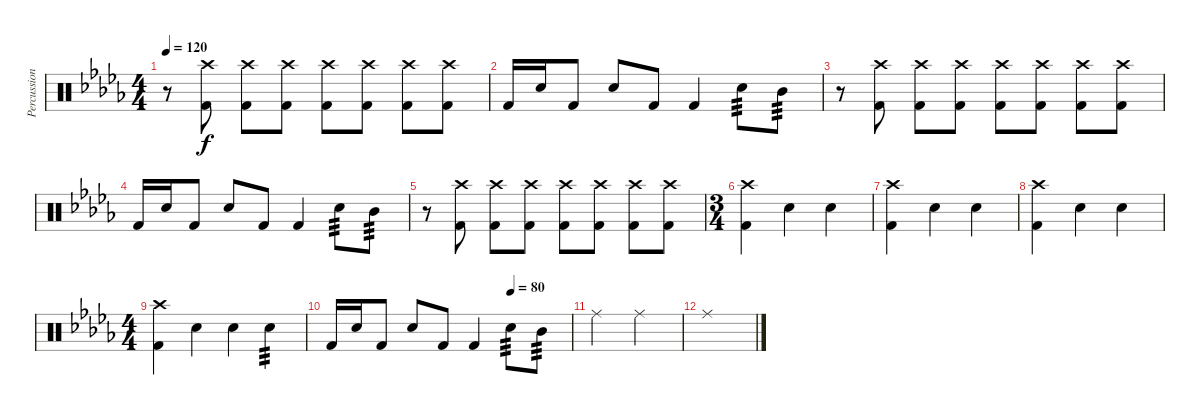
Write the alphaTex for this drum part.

\track ("Percussion" "Percussion") {instrument percussion}
\staff {score}
\articulation defaults
\ts (4 4)
\tempo 120
\clef neutral
\ks db
r.8{dy f} ("Crash high (hit)" "Kick (hit) 2").8 ("Crash high (hit)" "Kick (hit) 2").8 ("Crash high (hit)" "Kick (hit) 2").8 ("Crash high (hit)" "Kick (hit) 2").8 ("Crash high (hit)" "Kick (hit) 2").8 ("Crash high (hit)" "Kick (hit) 2").8 ("Crash high (hit)" "Kick (hit) 2").8 |
"Kick (hit) 2".16 "Electric Snare (hit)".16 "Kick (hit) 2".8 "Electric Snare (hit)".8 "Kick (hit) 2".8 "Kick (hit) 2".4 "Electric Snare (hit)".8{tp 3} "Mid Tom (hit)".8{tp 3} |
r.8 ("Crash high (hit)" "Kick (hit) 2").8 ("Crash high (hit)" "Kick (hit) 2").8 ("Crash high (hit)" "Kick (hit) 2").8 ("Crash high (hit)" "Kick (hit) 2").8 ("Crash high (hit)" "Kick (hit) 2").8 ("Crash high (hit)" "Kick (hit) 2").8 ("Crash high (hit)" "Kick (hit) 2").8 |
"Kick (hit) 2".16 "Electric Snare (hit)".16 "Kick (hit) 2".8 "Electric Snare (hit)".8 "Kick (hit) 2".8 "Kick (hit) 2".4 "Electric Snare (hit)".8{tp 3} "Mid Tom (hit)".8{tp 3} |
r.8 ("Crash high (hit)" "Kick (hit) 2").8 ("Crash high (hit)" "Kick (hit) 2").8 ("Crash high (hit)" "Kick (hit) 2").8 ("Crash high (hit)" "Kick (hit) 2").8 ("Crash high (hit)" "Kick (hit) 2").8 ("Crash high (hit)" "Kick (hit) 2").8 ("Crash high (hit)" "Kick (hit) 2").8 |
\ts (3 4)
("Crash high (hit)" "Kick (hit) 2").4 "Electric Snare (hit)".4 "Electric Snare (hit)".4 |
("Crash high (hit)" "Kick (hit) 2").4 "Electric Snare (hit)".4 "Electric Snare (hit)".4 |
("Crash high (hit)" "Kick (hit) 2").4 "Electric Snare (hit)".4 "Electric Snare (hit)".4 |
\ts (4 4)
("Crash high (hit)" "Kick (hit) 2").4 "Electric Snare (hit)".4 "Electric Snare (hit)".4 "Electric Snare (hit)".4{tp 3} |
\tempo (80 0.75)
"Kick (hit) 2".16 "Electric Snare (hit)".16 "Kick (hit) 2".8 "Electric Snare (hit)".8 "Kick (hit) 2".8 "Kick (hit) 2".4 "Electric Snare (hit)".8{tp 3} "Mid Tom (hit)".8{tp 3} |
"Ride (middle)".2 "Ride (middle)".2 |
"Ride (middle)".1
